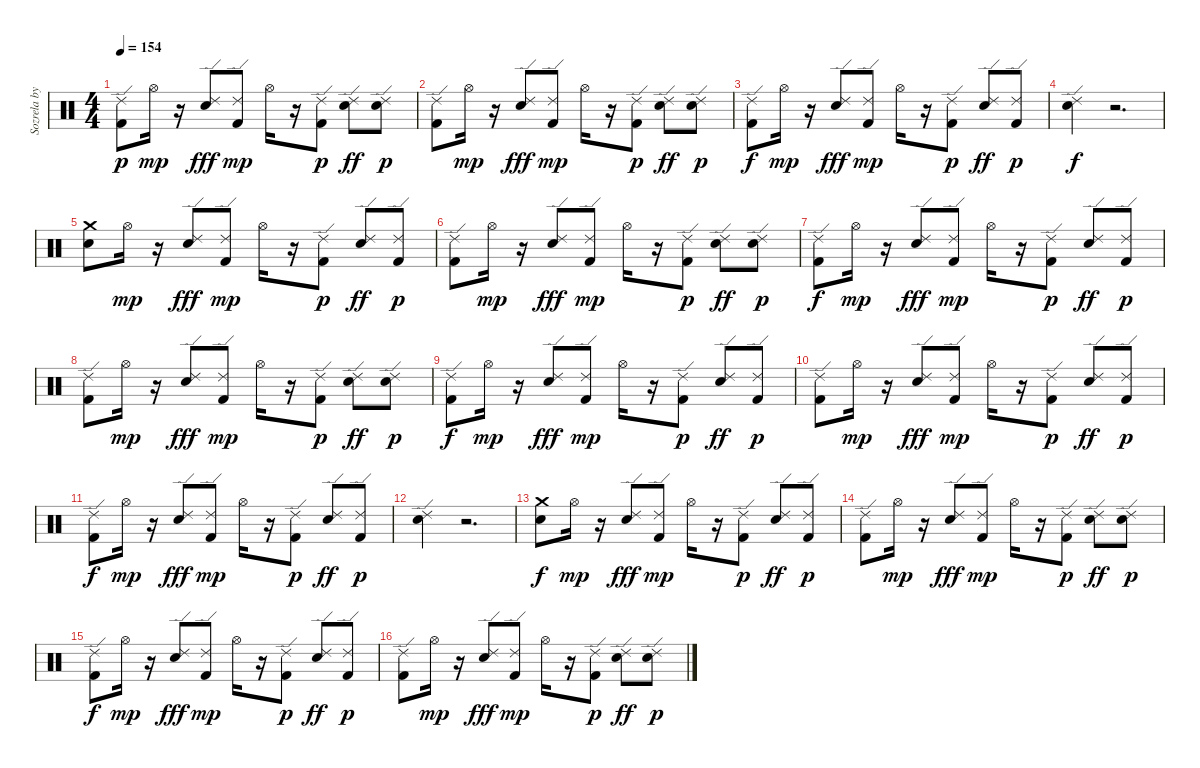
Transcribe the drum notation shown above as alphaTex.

\track ("Sozrela by Anton" "Sozrela by") {instrument percussion}
\staff {score}
\articulation defaults
\ts (4 4)
\tempo 154
\clef neutral
\ks c
("Kick (hit) 2" "Ride (edge) 2").8{dy p} "Hi-Hat (open)".16{dy mp} r.16 ("Ride (edge) 2" "Snare (hit) 2").8{dy fff} ("Ride (edge) 2" "Kick (hit) 2").8{dy mp} "Hi-Hat (open)".16 r.16 ("Ride (edge) 2" "Kick (hit) 2").8{dy p} ("Ride (edge) 2" "Snare (hit) 2").8{dy ff} ("Ride (edge) 2" "Snare (hit) 2").8{dy p} |
("Kick (hit) 2" "Ride (edge) 2").8 "Hi-Hat (open)".16{dy mp} r.16 ("Ride (edge) 2" "Snare (hit) 2").8{dy fff} ("Ride (edge) 2" "Kick (hit) 2").8{dy mp} "Hi-Hat (open)".16 r.16 ("Ride (edge) 2" "Kick (hit) 2").8{dy p} ("Ride (edge) 2" "Snare (hit) 2").8{dy ff} ("Ride (edge) 2" "Snare (hit) 2").8{dy p} |
("Kick (hit) 2" "Ride (edge) 2").8{dy f} "Hi-Hat (open)".16{dy mp} r.16 ("Ride (edge) 2" "Snare (hit) 2").8{dy fff} ("Ride (edge) 2" "Kick (hit) 2").8{dy mp} "Hi-Hat (open)".16 r.16 ("Ride (edge) 2" "Kick (hit) 2").8{dy p} ("Ride (edge) 2" "Snare (hit) 2").8{dy ff} ("Ride (edge) 2" "Kick (hit) 2").8{dy p} |
("Snare (hit) 2" "Ride (edge) 2").4{dy f} r.2{d} |
("Electric Snare (hit)" "Crash medium (hit)").8 "Hi-Hat (open)".16{dy mp} r.16 ("Ride (edge) 2" "Snare (hit) 2").8{dy fff} ("Ride (edge) 2" "Kick (hit) 2").8{dy mp} "Hi-Hat (open)".16 r.16 ("Ride (edge) 2" "Kick (hit) 2").8{dy p} ("Ride (edge) 2" "Snare (hit) 2").8{dy ff} ("Ride (edge) 2" "Kick (hit) 2").8{dy p} |
("Kick (hit) 2" "Ride (edge) 2").8 "Hi-Hat (open)".16{dy mp} r.16 ("Ride (edge) 2" "Snare (hit) 2").8{dy fff} ("Ride (edge) 2" "Kick (hit) 2").8{dy mp} "Hi-Hat (open)".16 r.16 ("Ride (edge) 2" "Kick (hit) 2").8{dy p} ("Ride (edge) 2" "Snare (hit) 2").8{dy ff} ("Ride (edge) 2" "Snare (hit) 2").8{dy p} |
("Kick (hit) 2" "Ride (edge) 2").8{dy f} "Hi-Hat (open)".16{dy mp} r.16 ("Ride (edge) 2" "Snare (hit) 2").8{dy fff} ("Ride (edge) 2" "Kick (hit) 2").8{dy mp} "Hi-Hat (open)".16 r.16 ("Ride (edge) 2" "Kick (hit) 2").8{dy p} ("Ride (edge) 2" "Snare (hit) 2").8{dy ff} ("Ride (edge) 2" "Kick (hit) 2").8{dy p} |
("Kick (hit) 2" "Ride (edge) 2").8 "Hi-Hat (open)".16{dy mp} r.16 ("Ride (edge) 2" "Snare (hit) 2").8{dy fff} ("Ride (edge) 2" "Kick (hit) 2").8{dy mp} "Hi-Hat (open)".16 r.16 ("Ride (edge) 2" "Kick (hit) 2").8{dy p} ("Ride (edge) 2" "Snare (hit) 2").8{dy ff} ("Ride (edge) 2" "Snare (hit) 2").8{dy p} |
("Kick (hit) 2" "Ride (edge) 2").8{dy f} "Hi-Hat (open)".16{dy mp} r.16 ("Ride (edge) 2" "Snare (hit) 2").8{dy fff} ("Ride (edge) 2" "Kick (hit) 2").8{dy mp} "Hi-Hat (open)".16 r.16 ("Ride (edge) 2" "Kick (hit) 2").8{dy p} ("Ride (edge) 2" "Snare (hit) 2").8{dy ff} ("Ride (edge) 2" "Kick (hit) 2").8{dy p} |
("Kick (hit) 2" "Ride (edge) 2").8 "Hi-Hat (open)".16{dy mp} r.16 ("Ride (edge) 2" "Snare (hit) 2").8{dy fff} ("Ride (edge) 2" "Kick (hit) 2").8{dy mp} "Hi-Hat (open)".16 r.16 ("Ride (edge) 2" "Kick (hit) 2").8{dy p} ("Ride (edge) 2" "Snare (hit) 2").8{dy ff} ("Ride (edge) 2" "Kick (hit) 2").8{dy p} |
("Kick (hit) 2" "Ride (edge) 2").8{dy f} "Hi-Hat (open)".16{dy mp} r.16 ("Ride (edge) 2" "Snare (hit) 2").8{dy fff} ("Ride (edge) 2" "Kick (hit) 2").8{dy mp} "Hi-Hat (open)".16 r.16 ("Ride (edge) 2" "Kick (hit) 2").8{dy p} ("Ride (edge) 2" "Snare (hit) 2").8{dy ff} ("Ride (edge) 2" "Kick (hit) 2").8{dy p} |
("Snare (hit) 2" "Ride (edge) 2").4 r.2{d} |
("Electric Snare (hit)" "Crash medium (hit)").8{dy f} "Hi-Hat (open)".16{dy mp} r.16 ("Ride (edge) 2" "Snare (hit) 2").8{dy fff} ("Ride (edge) 2" "Kick (hit) 2").8{dy mp} "Hi-Hat (open)".16 r.16 ("Ride (edge) 2" "Kick (hit) 2").8{dy p} ("Ride (edge) 2" "Snare (hit) 2").8{dy ff} ("Ride (edge) 2" "Kick (hit) 2").8{dy p} |
("Kick (hit) 2" "Ride (edge) 2").8 "Hi-Hat (open)".16{dy mp} r.16 ("Ride (edge) 2" "Snare (hit) 2").8{dy fff} ("Ride (edge) 2" "Kick (hit) 2").8{dy mp} "Hi-Hat (open)".16 r.16 ("Ride (edge) 2" "Kick (hit) 2").8{dy p} ("Ride (edge) 2" "Snare (hit) 2").8{dy ff} ("Ride (edge) 2" "Snare (hit) 2").8{dy p} |
("Kick (hit) 2" "Ride (edge) 2").8{dy f} "Hi-Hat (open)".16{dy mp} r.16 ("Ride (edge) 2" "Snare (hit) 2").8{dy fff} ("Ride (edge) 2" "Kick (hit) 2").8{dy mp} "Hi-Hat (open)".16 r.16 ("Ride (edge) 2" "Kick (hit) 2").8{dy p} ("Ride (edge) 2" "Snare (hit) 2").8{dy ff} ("Ride (edge) 2" "Kick (hit) 2").8{dy p} |
("Kick (hit) 2" "Ride (edge) 2").8 "Hi-Hat (open)".16{dy mp} r.16 ("Ride (edge) 2" "Snare (hit) 2").8{dy fff} ("Ride (edge) 2" "Kick (hit) 2").8{dy mp} "Hi-Hat (open)".16 r.16 ("Ride (edge) 2" "Kick (hit) 2").8{dy p} ("Ride (edge) 2" "Snare (hit) 2").8{dy ff} ("Ride (edge) 2" "Snare (hit) 2").8{dy p}
